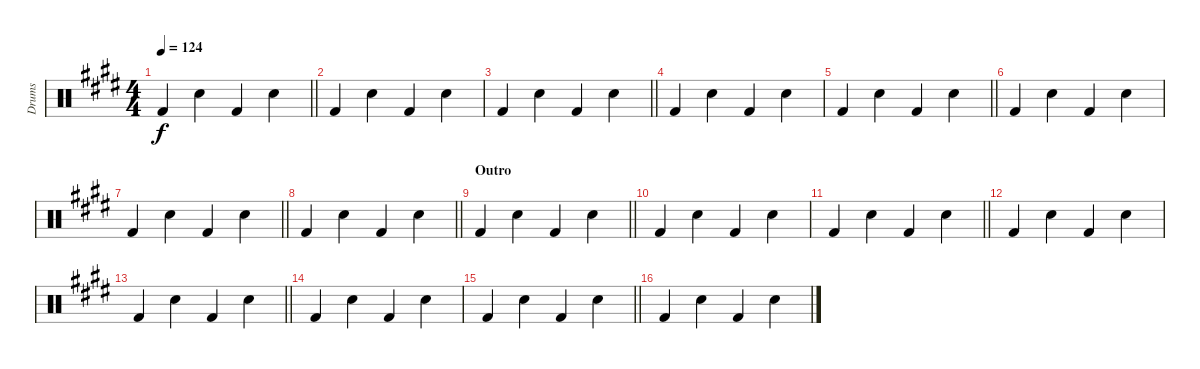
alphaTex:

\track ("Drums" "Drums") {instrument percussion}
\staff {score}
\articulation defaults
\ts (4 4)
\tempo 124
\clef neutral
\barLineRight lightlight
\ks e "Kick (hit) 2".4{dy f} "Snare (hit) 2".4 "Kick (hit) 2".4 "Snare (hit) 2".4
|
"Kick (hit) 2".4 "Snare (hit) 2".4 "Kick (hit) 2".4 "Snare (hit) 2".4 |
\barLineRight lightlight "Kick (hit) 2".4 "Snare (hit) 2".4 "Kick (hit) 2".4 "Snare (hit) 2".4
|
"Kick (hit) 2".4 "Snare (hit) 2".4 "Kick (hit) 2".4 "Snare (hit) 2".4 |
\barLineRight lightlight "Kick (hit) 2".4 "Snare (hit) 2".4 "Kick (hit) 2".4 "Snare (hit) 2".4
|
"Kick (hit) 2".4 "Snare (hit) 2".4 "Kick (hit) 2".4 "Snare (hit) 2".4 |
\barLineRight lightlight "Kick (hit) 2".4 "Snare (hit) 2".4 "Kick (hit) 2".4 "Snare (hit) 2".4
|
\barLineRight lightlight "Kick (hit) 2".4 "Snare (hit) 2".4 "Kick (hit) 2".4 "Snare (hit) 2".4
|
\section ("" "Outro")
\barLineRight lightlight "Kick (hit) 2".4 "Snare (hit) 2".4 "Kick (hit) 2".4 "Snare (hit) 2".4
|
"Kick (hit) 2".4 "Snare (hit) 2".4 "Kick (hit) 2".4 "Snare (hit) 2".4 |
\barLineRight lightlight "Kick (hit) 2".4 "Snare (hit) 2".4 "Kick (hit) 2".4 "Snare (hit) 2".4
|
"Kick (hit) 2".4 "Snare (hit) 2".4 "Kick (hit) 2".4 "Snare (hit) 2".4 |
\barLineRight lightlight "Kick (hit) 2".4 "Snare (hit) 2".4 "Kick (hit) 2".4 "Snare (hit) 2".4
|
"Kick (hit) 2".4 "Snare (hit) 2".4 "Kick (hit) 2".4 "Snare (hit) 2".4 |
\barLineRight lightlight "Kick (hit) 2".4 "Snare (hit) 2".4 "Kick (hit) 2".4 "Snare (hit) 2".4
|
"Kick (hit) 2".4 "Snare (hit) 2".4 "Kick (hit) 2".4 "Snare (hit) 2".4
